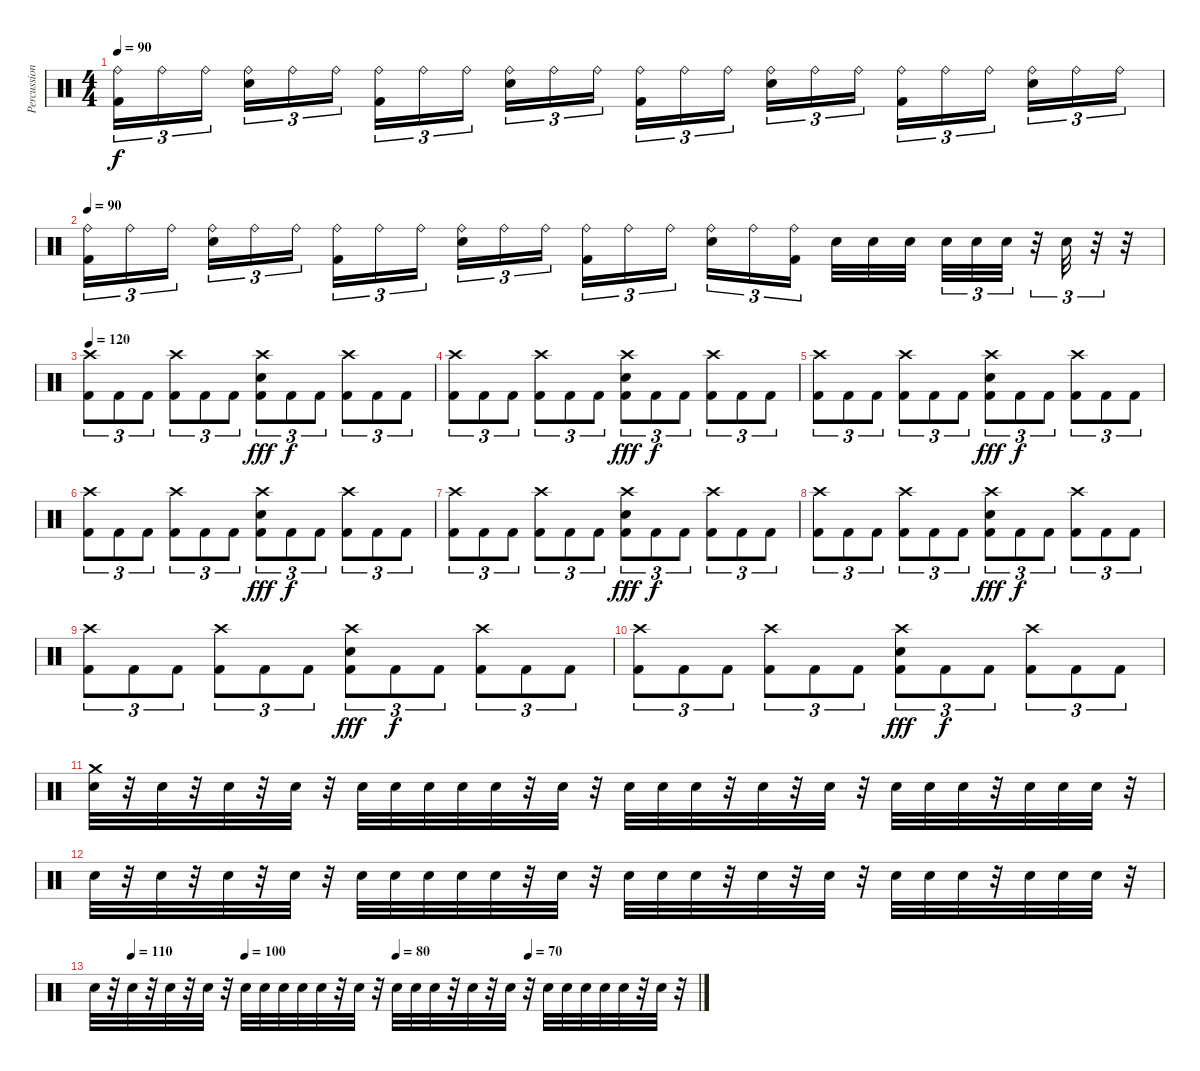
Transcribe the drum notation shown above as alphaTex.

\track ("Percussion" "Percussion") {instrument percussion}
\staff {score}
\articulation defaults
\ts (4 4)
\tempo 90
\clef neutral
\ks c
("Ride (bell)" "Kick (hit) 2").16{tu (3 2) dy f} "Ride (bell)".16{tu (3 2)} "Ride (bell)".16{tu (3 2)} ("Ride (bell)" "Electric Snare (hit)").16{tu (3 2)} "Ride (bell)".16{tu (3 2)} "Ride (bell)".16{tu (3 2)} ("Ride (bell)" "Kick (hit) 2").16{tu (3 2)} "Ride (bell)".16{tu (3 2)} "Ride (bell)".16{tu (3 2)} ("Ride (bell)" "Electric Snare (hit)").16{tu (3 2)} "Ride (bell)".16{tu (3 2)} "Ride (bell)".16{tu (3 2)} ("Ride (bell)" "Kick (hit) 2").16{tu (3 2)} "Ride (bell)".16{tu (3 2)} "Ride (bell)".16{tu (3 2)} ("Ride (bell)" "Electric Snare (hit)").16{tu (3 2)} "Ride (bell)".16{tu (3 2)} "Ride (bell)".16{tu (3 2)} ("Ride (bell)" "Kick (hit) 2").16{tu (3 2)} "Ride (bell)".16{tu (3 2)} "Ride (bell)".16{tu (3 2)} ("Ride (bell)" "Electric Snare (hit)").16{tu (3 2)} "Ride (bell)".16{tu (3 2)} "Ride (bell)".16{tu (3 2)} |
\tempo 90
("Ride (bell)" "Kick (hit) 2").16{tu (3 2)} "Ride (bell)".16{tu (3 2)} "Ride (bell)".16{tu (3 2)} ("Ride (bell)" "Electric Snare (hit)").16{tu (3 2)} "Ride (bell)".16{tu (3 2)} "Ride (bell)".16{tu (3 2)} ("Ride (bell)" "Kick (hit) 2").16{tu (3 2)} "Ride (bell)".16{tu (3 2)} "Ride (bell)".16{tu (3 2)} ("Ride (bell)" "Electric Snare (hit)").16{tu (3 2)} "Ride (bell)".16{tu (3 2)} "Ride (bell)".16{tu (3 2)} ("Ride (bell)" "Kick (hit) 2").16{tu (3 2)} "Ride (bell)".16{tu (3 2)} "Ride (bell)".16{tu (3 2)} ("Ride (bell)" "Electric Snare (hit)").16{tu (3 2)} "Ride (bell)".16{tu (3 2)} ("Ride (bell)" "Kick (hit) 2").16{tu (3 2)} "Electric Snare (hit)".32 "Electric Snare (hit)".32 "Electric Snare (hit)".32 "Electric Snare (hit)".32{tu (3 2)} "Electric Snare (hit)".32{tu (3 2)} "Electric Snare (hit)".32{tu (3 2)} r.32{tu (3 2)} "Electric Snare (hit)".32{tu (3 2)} r.32{tu (3 2)} r.32 |
\tempo 120
("Crash high (hit)" "Kick (hit) 2").8{tu (3 2)} "Kick (hit) 2".8{tu (3 2)} "Kick (hit) 2".8{tu (3 2)} ("Crash high (hit)" "Kick (hit) 2").8{tu (3 2)} "Kick (hit) 2".8{tu (3 2)} "Kick (hit) 2".8{tu (3 2)} ("Crash high (hit)" "Electric Snare (hit)" "Kick (hit) 2").8{tu (3 2) dy fff} "Kick (hit) 2".8{tu (3 2) dy f} "Kick (hit) 2".8{tu (3 2)} ("Crash high (hit)" "Kick (hit) 2").8{tu (3 2)} "Kick (hit) 2".8{tu (3 2)} "Kick (hit) 2".8{tu (3 2)} |
("Crash high (hit)" "Kick (hit) 2").8{tu (3 2)} "Kick (hit) 2".8{tu (3 2)} "Kick (hit) 2".8{tu (3 2)} ("Crash high (hit)" "Kick (hit) 2").8{tu (3 2)} "Kick (hit) 2".8{tu (3 2)} "Kick (hit) 2".8{tu (3 2)} ("Crash high (hit)" "Electric Snare (hit)" "Kick (hit) 2").8{tu (3 2) dy fff} "Kick (hit) 2".8{tu (3 2) dy f} "Kick (hit) 2".8{tu (3 2)} ("Crash high (hit)" "Kick (hit) 2").8{tu (3 2)} "Kick (hit) 2".8{tu (3 2)} "Kick (hit) 2".8{tu (3 2)} |
("Crash high (hit)" "Kick (hit) 2").8{tu (3 2)} "Kick (hit) 2".8{tu (3 2)} "Kick (hit) 2".8{tu (3 2)} ("Crash high (hit)" "Kick (hit) 2").8{tu (3 2)} "Kick (hit) 2".8{tu (3 2)} "Kick (hit) 2".8{tu (3 2)} ("Crash high (hit)" "Electric Snare (hit)" "Kick (hit) 2").8{tu (3 2) dy fff} "Kick (hit) 2".8{tu (3 2) dy f} "Kick (hit) 2".8{tu (3 2)} ("Crash high (hit)" "Kick (hit) 2").8{tu (3 2)} "Kick (hit) 2".8{tu (3 2)} "Kick (hit) 2".8{tu (3 2)} |
("Crash high (hit)" "Kick (hit) 2").8{tu (3 2)} "Kick (hit) 2".8{tu (3 2)} "Kick (hit) 2".8{tu (3 2)} ("Crash high (hit)" "Kick (hit) 2").8{tu (3 2)} "Kick (hit) 2".8{tu (3 2)} "Kick (hit) 2".8{tu (3 2)} ("Crash high (hit)" "Electric Snare (hit)" "Kick (hit) 2").8{tu (3 2) dy fff} "Kick (hit) 2".8{tu (3 2) dy f} "Kick (hit) 2".8{tu (3 2)} ("Crash high (hit)" "Kick (hit) 2").8{tu (3 2)} "Kick (hit) 2".8{tu (3 2)} "Kick (hit) 2".8{tu (3 2)} |
("Crash high (hit)" "Kick (hit) 2").8{tu (3 2)} "Kick (hit) 2".8{tu (3 2)} "Kick (hit) 2".8{tu (3 2)} ("Crash high (hit)" "Kick (hit) 2").8{tu (3 2)} "Kick (hit) 2".8{tu (3 2)} "Kick (hit) 2".8{tu (3 2)} ("Crash high (hit)" "Electric Snare (hit)" "Kick (hit) 2").8{tu (3 2) dy fff} "Kick (hit) 2".8{tu (3 2) dy f} "Kick (hit) 2".8{tu (3 2)} ("Crash high (hit)" "Kick (hit) 2").8{tu (3 2)} "Kick (hit) 2".8{tu (3 2)} "Kick (hit) 2".8{tu (3 2)} |
("Crash high (hit)" "Kick (hit) 2").8{tu (3 2)} "Kick (hit) 2".8{tu (3 2)} "Kick (hit) 2".8{tu (3 2)} ("Crash high (hit)" "Kick (hit) 2").8{tu (3 2)} "Kick (hit) 2".8{tu (3 2)} "Kick (hit) 2".8{tu (3 2)} ("Crash high (hit)" "Electric Snare (hit)" "Kick (hit) 2").8{tu (3 2) dy fff} "Kick (hit) 2".8{tu (3 2) dy f} "Kick (hit) 2".8{tu (3 2)} ("Crash high (hit)" "Kick (hit) 2").8{tu (3 2)} "Kick (hit) 2".8{tu (3 2)} "Kick (hit) 2".8{tu (3 2)} |
("Crash high (hit)" "Kick (hit) 2").8{tu (3 2)} "Kick (hit) 2".8{tu (3 2)} "Kick (hit) 2".8{tu (3 2)} ("Crash high (hit)" "Kick (hit) 2").8{tu (3 2)} "Kick (hit) 2".8{tu (3 2)} "Kick (hit) 2".8{tu (3 2)} ("Crash high (hit)" "Electric Snare (hit)" "Kick (hit) 2").8{tu (3 2) dy fff} "Kick (hit) 2".8{tu (3 2) dy f} "Kick (hit) 2".8{tu (3 2)} ("Crash high (hit)" "Kick (hit) 2").8{tu (3 2)} "Kick (hit) 2".8{tu (3 2)} "Kick (hit) 2".8{tu (3 2)} |
("Crash high (hit)" "Kick (hit) 2").8{tu (3 2)} "Kick (hit) 2".8{tu (3 2)} "Kick (hit) 2".8{tu (3 2)} ("Crash high (hit)" "Kick (hit) 2").8{tu (3 2)} "Kick (hit) 2".8{tu (3 2)} "Kick (hit) 2".8{tu (3 2)} ("Crash high (hit)" "Electric Snare (hit)" "Kick (hit) 2").8{tu (3 2) dy fff} "Kick (hit) 2".8{tu (3 2) dy f} "Kick (hit) 2".8{tu (3 2)} ("Crash high (hit)" "Kick (hit) 2").8{tu (3 2)} "Kick (hit) 2".8{tu (3 2)} "Kick (hit) 2".8{tu (3 2)} |
("Crash medium (hit)" "Electric Snare (hit)").32{volume 12} r.32 "Electric Snare (hit)".32 r.32 "Electric Snare (hit)".32 r.32 "Electric Snare (hit)".32 r.32 "Electric Snare (hit)".32 "Electric Snare (hit)".32 "Electric Snare (hit)".32 "Electric Snare (hit)".32 "Electric Snare (hit)".32 r.32 "Electric Snare (hit)".32 r.32 "Electric Snare (hit)".32 "Electric Snare (hit)".32 "Electric Snare (hit)".32 r.32 "Electric Snare (hit)".32 r.32 "Electric Snare (hit)".32 r.32 "Electric Snare (hit)".32 "Electric Snare (hit)".32 "Electric Snare (hit)".32 r.32 "Electric Snare (hit)".32 "Electric Snare (hit)".32 "Electric Snare (hit)".32 r.32 |
"Electric Snare (hit)".32{volume 8} r.32 "Electric Snare (hit)".32 r.32 "Electric Snare (hit)".32 r.32 "Electric Snare (hit)".32 r.32 "Electric Snare (hit)".32 "Electric Snare (hit)".32 "Electric Snare (hit)".32 "Electric Snare (hit)".32 "Electric Snare (hit)".32 r.32 "Electric Snare (hit)".32 r.32 "Electric Snare (hit)".32 "Electric Snare (hit)".32 "Electric Snare (hit)".32 r.32 "Electric Snare (hit)".32 r.32 "Electric Snare (hit)".32 r.32 "Electric Snare (hit)".32 "Electric Snare (hit)".32 "Electric Snare (hit)".32 r.32 "Electric Snare (hit)".32 "Electric Snare (hit)".32 "Electric Snare (hit)".32 r.32 |
\tempo (110 0.0625)
\tempo (100 0.25)
\tempo (80 0.5)
\tempo (70 0.71875)
"Electric Snare (hit)".32{volume 5} r.32 "Electric Snare (hit)".32 r.32 "Electric Snare (hit)".32 r.32 "Electric Snare (hit)".32 r.32 "Electric Snare (hit)".32 "Electric Snare (hit)".32 "Electric Snare (hit)".32 "Electric Snare (hit)".32 "Electric Snare (hit)".32 r.32 "Electric Snare (hit)".32 r.32 "Electric Snare (hit)".32 "Electric Snare (hit)".32{volume 5} "Electric Snare (hit)".32 r.32 "Electric Snare (hit)".32 r.32 "Electric Snare (hit)".32 r.32{volume 3} "Electric Snare (hit)".32 "Electric Snare (hit)".32 "Electric Snare (hit)".32 "Electric Snare (hit)".32 "Electric Snare (hit)".32 r.32 "Electric Snare (hit)".32 r.32
